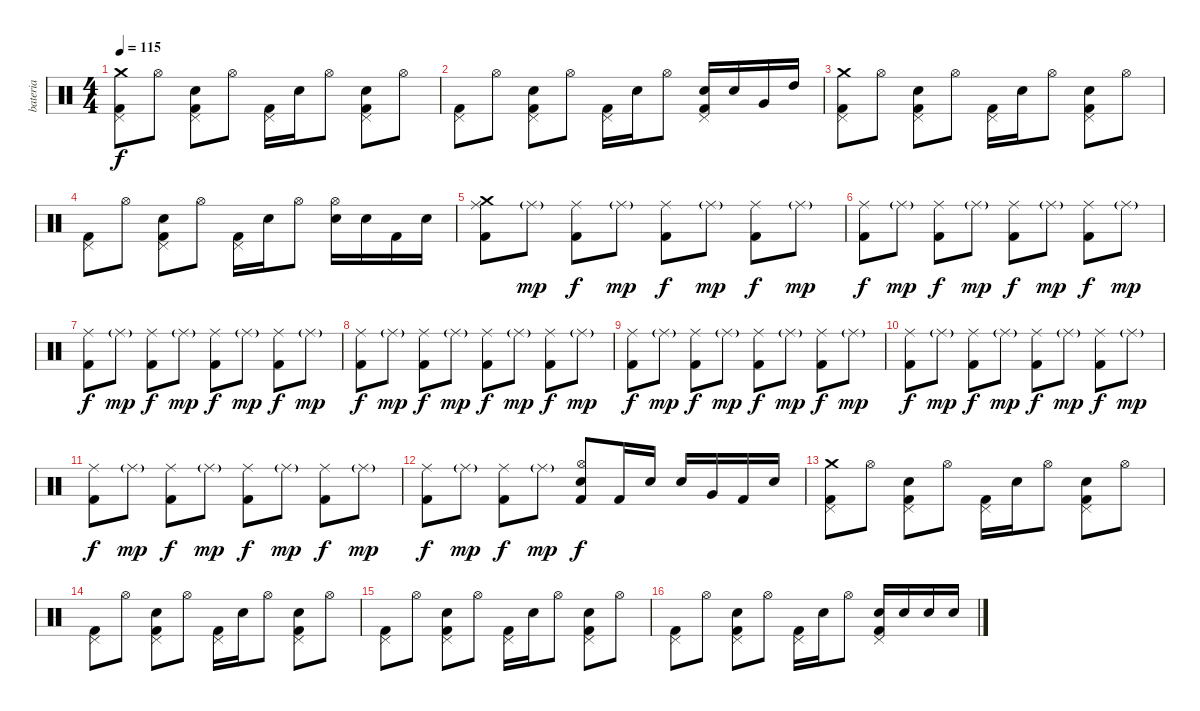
\track ("bateria" "bateria") {instrument percussion}
\staff {score}
\articulation defaults
\ts (4 4)
\tempo 115
\clef neutral
\ks c
("Crash medium (hit)" "Pedal Hi-Hat (hit)" "Kick (hit) 2").8{dy f} "Hi-Hat (open)".8 ("Pedal Hi-Hat (hit)" "Snare (hit) 2" "Kick (hit) 2").8 "Hi-Hat (open)".8 ("Pedal Hi-Hat (hit)" "Kick (hit) 2").16 "Snare (hit) 2".16 "Hi-Hat (open)".8 ("Pedal Hi-Hat (hit)" "Snare (hit) 2" "Kick (hit) 2").8 "Hi-Hat (open)".8 |
("Pedal Hi-Hat (hit)" "Kick (hit) 2").8 "Hi-Hat (open)".8 ("Pedal Hi-Hat (hit)" "Snare (hit) 2" "Kick (hit) 2").8 "Hi-Hat (open)".8 ("Pedal Hi-Hat (hit)" "Kick (hit) 2").16 "Snare (hit) 2".16 "Hi-Hat (open)".8 ("Pedal Hi-Hat (hit)" "Snare (hit) 2" "Kick (hit) 2").16 "Snare (hit) 2".16 "Very Low Tom (hit)".16 "High Tom (hit)".16 |
("Crash medium (hit)" "Pedal Hi-Hat (hit)" "Kick (hit) 2").8 "Hi-Hat (open)".8 ("Pedal Hi-Hat (hit)" "Snare (hit) 2" "Kick (hit) 2").8 "Hi-Hat (open)".8 ("Pedal Hi-Hat (hit)" "Kick (hit) 2").16 "Snare (hit) 2".16 "Hi-Hat (open)".8 ("Pedal Hi-Hat (hit)" "Snare (hit) 2" "Kick (hit) 2").8 "Hi-Hat (open)".8 |
("Pedal Hi-Hat (hit)" "Kick (hit) 2").8 "Hi-Hat (open)".8 ("Pedal Hi-Hat (hit)" "Snare (hit) 2" "Kick (hit) 2").8 "Hi-Hat (open)".8 ("Pedal Hi-Hat (hit)" "Kick (hit) 2").16 "Snare (hit) 2".16 "Hi-Hat (open)".8 ("Hi-Hat (open)" "Snare (hit) 2").16 "Snare (hit) 2".16 "Kick (hit) 2".16 "Snare (hit) 2".16 |
("Crash medium (hit)" "Ride (middle)" "Kick (hit) 2").8 "Ride (middle)"{g}.8{dy mp} ("Ride (middle)" "Kick (hit) 2").8{dy f} "Ride (middle)"{g}.8{dy mp} ("Ride (middle)" "Kick (hit) 2").8{dy f} "Ride (middle)"{g}.8{dy mp} ("Ride (middle)" "Kick (hit) 2").8{dy f} "Ride (middle)"{g}.8{dy mp} |
("Ride (middle)" "Kick (hit) 2").8{dy f} "Ride (middle)"{g}.8{dy mp} ("Ride (middle)" "Kick (hit) 2").8{dy f} "Ride (middle)"{g}.8{dy mp} ("Ride (middle)" "Kick (hit) 2").8{dy f} "Ride (middle)"{g}.8{dy mp} ("Ride (middle)" "Kick (hit) 2").8{dy f} "Ride (middle)"{g}.8{dy mp} |
("Ride (middle)" "Kick (hit) 2").8{dy f} "Ride (middle)"{g}.8{dy mp} ("Ride (middle)" "Kick (hit) 2").8{dy f} "Ride (middle)"{g}.8{dy mp} ("Ride (middle)" "Kick (hit) 2").8{dy f} "Ride (middle)"{g}.8{dy mp} ("Ride (middle)" "Kick (hit) 2").8{dy f} "Ride (middle)"{g}.8{dy mp} |
("Ride (middle)" "Kick (hit) 2").8{dy f} "Ride (middle)"{g}.8{dy mp} ("Ride (middle)" "Kick (hit) 2").8{dy f} "Ride (middle)"{g}.8{dy mp} ("Ride (middle)" "Kick (hit) 2").8{dy f} "Ride (middle)"{g}.8{dy mp} ("Ride (middle)" "Kick (hit) 2").8{dy f} "Ride (middle)"{g}.8{dy mp} |
("Ride (middle)" "Kick (hit) 2").8{dy f} "Ride (middle)"{g}.8{dy mp} ("Ride (middle)" "Kick (hit) 2").8{dy f} "Ride (middle)"{g}.8{dy mp} ("Ride (middle)" "Kick (hit) 2").8{dy f} "Ride (middle)"{g}.8{dy mp} ("Ride (middle)" "Kick (hit) 2").8{dy f} "Ride (middle)"{g}.8{dy mp} |
("Ride (middle)" "Kick (hit) 2").8{dy f} "Ride (middle)"{g}.8{dy mp} ("Ride (middle)" "Kick (hit) 2").8{dy f} "Ride (middle)"{g}.8{dy mp} ("Ride (middle)" "Kick (hit) 2").8{dy f} "Ride (middle)"{g}.8{dy mp} ("Ride (middle)" "Kick (hit) 2").8{dy f} "Ride (middle)"{g}.8{dy mp} |
("Ride (middle)" "Kick (hit) 2").8{dy f} "Ride (middle)"{g}.8{dy mp} ("Ride (middle)" "Kick (hit) 2").8{dy f} "Ride (middle)"{g}.8{dy mp} ("Ride (middle)" "Kick (hit) 2").8{dy f} "Ride (middle)"{g}.8{dy mp} ("Ride (middle)" "Kick (hit) 2").8{dy f} "Ride (middle)"{g}.8{dy mp} |
("Ride (middle)" "Kick (hit) 2").8{dy f} "Ride (middle)"{g}.8{dy mp} ("Ride (middle)" "Kick (hit) 2").8{dy f} "Ride (middle)"{g}.8{dy mp} ("Hi-Hat (open)" "Snare (hit) 2" "Kick (hit) 2").8{dy f} "Kick (hit) 2".16 "Snare (hit) 2".16 "Snare (hit) 2".16 "Very Low Tom (hit)".16 "Kick (hit) 2".16 "Snare (hit) 2".16 |
("Crash medium (hit)" "Pedal Hi-Hat (hit)" "Kick (hit) 2").8 "Hi-Hat (open)".8 ("Pedal Hi-Hat (hit)" "Snare (hit) 2" "Kick (hit) 2").8 "Hi-Hat (open)".8 ("Pedal Hi-Hat (hit)" "Kick (hit) 2").16 "Snare (hit) 2".16 "Hi-Hat (open)".8 ("Pedal Hi-Hat (hit)" "Snare (hit) 2" "Kick (hit) 2").8 "Hi-Hat (open)".8 |
("Pedal Hi-Hat (hit)" "Kick (hit) 2").8 "Hi-Hat (open)".8 ("Pedal Hi-Hat (hit)" "Snare (hit) 2" "Kick (hit) 2").8 "Hi-Hat (open)".8 ("Pedal Hi-Hat (hit)" "Kick (hit) 2").16 "Snare (hit) 2".16 "Hi-Hat (open)".8 ("Pedal Hi-Hat (hit)" "Snare (hit) 2" "Kick (hit) 2").8 "Hi-Hat (open)".8 |
("Pedal Hi-Hat (hit)" "Kick (hit) 2").8 "Hi-Hat (open)".8 ("Pedal Hi-Hat (hit)" "Snare (hit) 2" "Kick (hit) 2").8 "Hi-Hat (open)".8 ("Pedal Hi-Hat (hit)" "Kick (hit) 2").16 "Snare (hit) 2".16 "Hi-Hat (open)".8 ("Pedal Hi-Hat (hit)" "Snare (hit) 2" "Kick (hit) 2").8 "Hi-Hat (open)".8 |
("Pedal Hi-Hat (hit)" "Kick (hit) 2").8 "Hi-Hat (open)".8 ("Pedal Hi-Hat (hit)" "Snare (hit) 2" "Kick (hit) 2").8 "Hi-Hat (open)".8 ("Pedal Hi-Hat (hit)" "Kick (hit) 2").16 "Snare (hit) 2".16 "Hi-Hat (open)".8 ("Pedal Hi-Hat (hit)" "Snare (hit) 2" "Kick (hit) 2").16 "Snare (hit) 2".16 "Snare (hit) 2".16 "Snare (hit) 2".16
